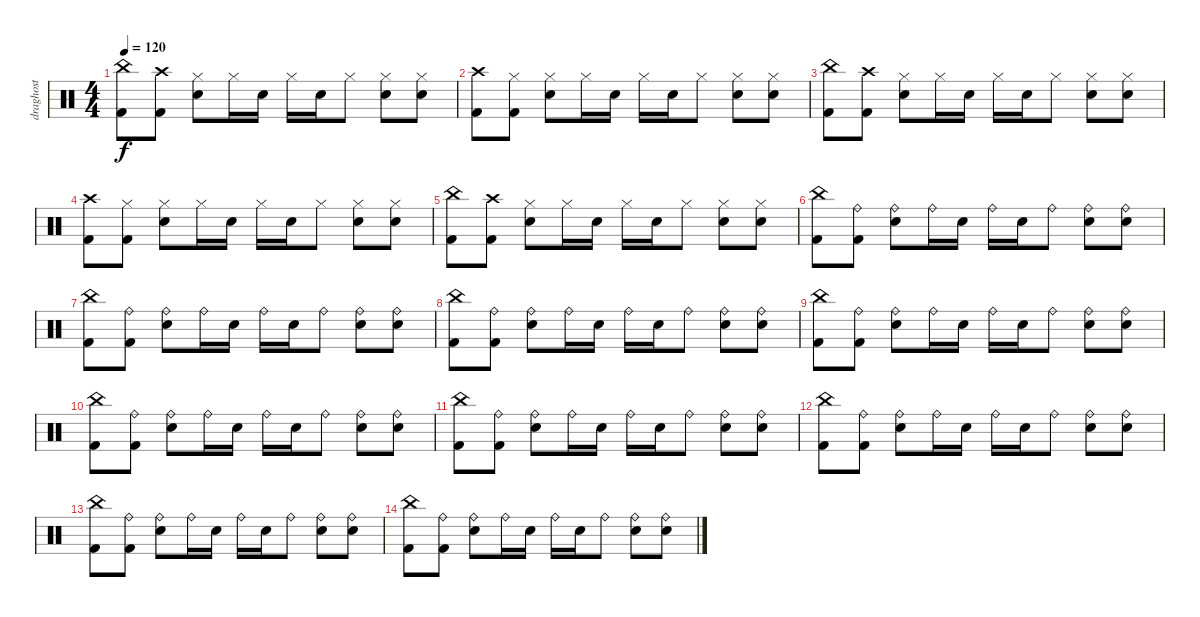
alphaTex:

\track ("draghost" "draghost") {instrument percussion}
\staff {score}
\articulation defaults
\ts (4 4)
\tempo 120
\clef neutral
\ks c
("China (hit)" "Kick (hit) 2").8{dy f} ("Crash high (hit)" "Kick (hit) 2").8 ("Hi-Hat (closed)" "Snare (hit) 2").8 "Hi-Hat (closed)".16 "Snare (hit) 2".16 "Hi-Hat (closed)".16 "Snare (hit) 2".16 "Hi-Hat (closed)".8 ("Hi-Hat (closed)" "Snare (hit) 2").8 ("Hi-Hat (closed)" "Snare (hit) 2").8 |
("Crash high (hit)" "Kick (hit) 2").8 ("Hi-Hat (closed)" "Kick (hit) 2").8 ("Hi-Hat (closed)" "Snare (hit) 2").8 "Hi-Hat (closed)".16 "Snare (hit) 2".16 "Hi-Hat (closed)".16 "Snare (hit) 2".16 "Hi-Hat (closed)".8 ("Hi-Hat (closed)" "Snare (hit) 2").8 ("Hi-Hat (closed)" "Snare (hit) 2").8 |
("China (hit)" "Kick (hit) 2").8 ("Crash high (hit)" "Kick (hit) 2").8 ("Hi-Hat (closed)" "Snare (hit) 2").8 "Hi-Hat (closed)".16 "Snare (hit) 2".16 "Hi-Hat (closed)".16 "Snare (hit) 2".16 "Hi-Hat (closed)".8 ("Hi-Hat (closed)" "Snare (hit) 2").8 ("Hi-Hat (closed)" "Snare (hit) 2").8 |
("Crash high (hit)" "Kick (hit) 2").8 ("Hi-Hat (closed)" "Kick (hit) 2").8 ("Hi-Hat (closed)" "Snare (hit) 2").8 "Hi-Hat (closed)".16 "Snare (hit) 2".16 "Hi-Hat (closed)".16 "Snare (hit) 2".16 "Hi-Hat (closed)".8 ("Hi-Hat (closed)" "Snare (hit) 2").8 ("Hi-Hat (closed)" "Snare (hit) 2").8 |
("China (hit)" "Kick (hit) 2").8 ("Crash high (hit)" "Kick (hit) 2").8 ("Hi-Hat (closed)" "Snare (hit) 2").8 "Hi-Hat (closed)".16 "Snare (hit) 2".16 "Hi-Hat (closed)".16 "Snare (hit) 2".16 "Hi-Hat (closed)".8 ("Hi-Hat (closed)" "Snare (hit) 2").8 ("Hi-Hat (closed)" "Snare (hit) 2").8 |
("China (hit)" "Kick (hit) 2").8 ("Ride (bell)" "Kick (hit) 2").8 ("Ride (bell)" "Snare (hit) 2").8 "Ride (bell)".16 "Snare (hit) 2".16 "Ride (bell)".16 "Snare (hit) 2".16 "Ride (bell)".8 ("Ride (bell)" "Snare (hit) 2").8 ("Ride (bell)" "Snare (hit) 2").8 |
("China (hit)" "Kick (hit) 2").8 ("Ride (bell)" "Kick (hit) 2").8 ("Ride (bell)" "Snare (hit) 2").8 "Ride (bell)".16 "Snare (hit) 2".16 "Ride (bell)".16 "Snare (hit) 2".16 "Ride (bell)".8 ("Ride (bell)" "Snare (hit) 2").8 ("Ride (bell)" "Snare (hit) 2").8 |
("China (hit)" "Kick (hit) 2").8 ("Ride (bell)" "Kick (hit) 2").8 ("Ride (bell)" "Snare (hit) 2").8 "Ride (bell)".16 "Snare (hit) 2".16 "Ride (bell)".16 "Snare (hit) 2".16 "Ride (bell)".8 ("Ride (bell)" "Snare (hit) 2").8 ("Ride (bell)" "Snare (hit) 2").8 |
("China (hit)" "Kick (hit) 2").8 ("Ride (bell)" "Kick (hit) 2").8 ("Ride (bell)" "Snare (hit) 2").8 "Ride (bell)".16 "Snare (hit) 2".16 "Ride (bell)".16 "Snare (hit) 2".16 "Ride (bell)".8 ("Ride (bell)" "Snare (hit) 2").8 ("Ride (bell)" "Snare (hit) 2").8 |
("China (hit)" "Kick (hit) 2").8 ("Ride (bell)" "Kick (hit) 2").8 ("Ride (bell)" "Snare (hit) 2").8 "Ride (bell)".16 "Snare (hit) 2".16 "Ride (bell)".16 "Snare (hit) 2".16 "Ride (bell)".8 ("Ride (bell)" "Snare (hit) 2").8 ("Ride (bell)" "Snare (hit) 2").8 |
("China (hit)" "Kick (hit) 2").8 ("Ride (bell)" "Kick (hit) 2").8 ("Ride (bell)" "Snare (hit) 2").8 "Ride (bell)".16 "Snare (hit) 2".16 "Ride (bell)".16 "Snare (hit) 2".16 "Ride (bell)".8 ("Ride (bell)" "Snare (hit) 2").8 ("Ride (bell)" "Snare (hit) 2").8 |
("China (hit)" "Kick (hit) 2").8 ("Ride (bell)" "Kick (hit) 2").8 ("Ride (bell)" "Snare (hit) 2").8 "Ride (bell)".16 "Snare (hit) 2".16 "Ride (bell)".16 "Snare (hit) 2".16 "Ride (bell)".8 ("Ride (bell)" "Snare (hit) 2").8 ("Ride (bell)" "Snare (hit) 2").8 |
("China (hit)" "Kick (hit) 2").8 ("Ride (bell)" "Kick (hit) 2").8 ("Ride (bell)" "Snare (hit) 2").8 "Ride (bell)".16 "Snare (hit) 2".16 "Ride (bell)".16 "Snare (hit) 2".16 "Ride (bell)".8 ("Ride (bell)" "Snare (hit) 2").8 ("Ride (bell)" "Snare (hit) 2").8 |
("China (hit)" "Kick (hit) 2").8 ("Ride (bell)" "Kick (hit) 2").8 ("Ride (bell)" "Snare (hit) 2").8 "Ride (bell)".16 "Snare (hit) 2".16 "Ride (bell)".16 "Snare (hit) 2".16 "Ride (bell)".8 ("Ride (bell)" "Snare (hit) 2").8 ("Ride (bell)" "Snare (hit) 2").8
